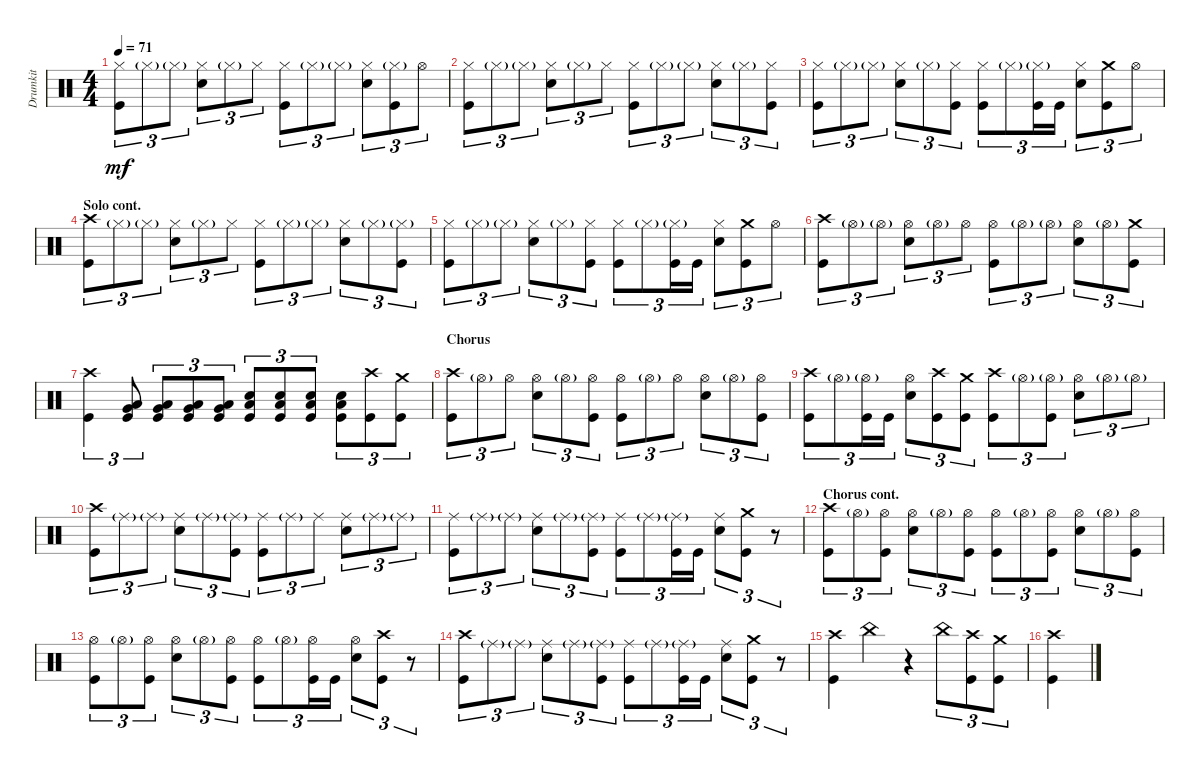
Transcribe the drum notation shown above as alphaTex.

\track ("Drumkit" "Drumkit") {instrument percussion}
\staff {score}
\articulation defaults
\ts (4 4)
\tempo 71
\clef neutral
\ks c
("Kick (hit)" "Hi-Hat (closed)").8{tu (3 2) dy mf} "Hi-Hat (closed)"{g}.8{tu (3 2)} "Hi-Hat (closed)"{g}.8{tu (3 2)} ("Hi-Hat (closed)" "Snare (hit) 2").8{tu (3 2)} "Hi-Hat (closed)"{g}.8{tu (3 2)} "Hi-Hat (closed)".8{tu (3 2)} ("Hi-Hat (closed)" "Kick (hit)").8{tu (3 2)} "Hi-Hat (closed)"{g}.8{tu (3 2)} "Hi-Hat (closed)"{g}.8{tu (3 2)} ("Hi-Hat (closed)" "Snare (hit) 2").8{tu (3 2)} ("Hi-Hat (closed)"{g} "Kick (hit)").8{tu (3 2)} "Hi-Hat (open)".8{tu (3 2)} |
("Hi-Hat (closed)" "Kick (hit)").8{tu (3 2)} "Hi-Hat (closed)"{g}.8{tu (3 2)} "Hi-Hat (closed)"{g}.8{tu (3 2)} ("Hi-Hat (closed)" "Snare (hit) 2").8{tu (3 2)} "Hi-Hat (closed)"{g}.8{tu (3 2)} "Hi-Hat (closed)".8{tu (3 2)} ("Hi-Hat (closed)" "Kick (hit)").8{tu (3 2)} "Hi-Hat (closed)"{g}.8{tu (3 2)} "Hi-Hat (closed)"{g}.8{tu (3 2)} ("Hi-Hat (closed)" "Snare (hit) 2").8{tu (3 2)} "Hi-Hat (closed)"{g}.8{tu (3 2)} ("Hi-Hat (closed)" "Kick (hit)").8{tu (3 2)} |
("Kick (hit)" "Hi-Hat (closed)").8{tu (3 2)} "Hi-Hat (closed)"{g}.8{tu (3 2)} "Hi-Hat (closed)"{g}.8{tu (3 2)} ("Hi-Hat (closed)" "Snare (hit) 2").8{tu (3 2)} "Hi-Hat (closed)"{g}.8{tu (3 2)} ("Hi-Hat (closed)" "Kick (hit)").8{tu (3 2)} ("Hi-Hat (closed)" "Kick (hit)").8{tu (3 2)} "Hi-Hat (closed)"{g}.8{tu (3 2)} ("Hi-Hat (closed)"{g} "Kick (hit)").16{tu (3 2)} "Kick (hit)".16{tu (3 2)} ("Hi-Hat (closed)" "Snare (hit) 2").8{tu (3 2)} ("Crash medium (hit)" "Kick (hit)").8{tu (3 2)} "Hi-Hat (open)".8{tu (3 2)} |
\section ("" "Solo cont.")
("Crash high (hit)" "Kick (hit)").8{tu (3 2)} "Hi-Hat (closed)"{g}.8{tu (3 2)} "Hi-Hat (closed)"{g}.8{tu (3 2)} ("Hi-Hat (closed)" "Snare (hit) 2").8{tu (3 2)} "Hi-Hat (closed)"{g}.8{tu (3 2)} "Hi-Hat (closed)".8{tu (3 2)} ("Hi-Hat (closed)" "Kick (hit)").8{tu (3 2)} "Hi-Hat (closed)"{g}.8{tu (3 2)} "Hi-Hat (closed)"{g}.8{tu (3 2)} ("Hi-Hat (closed)" "Snare (hit) 2").8{tu (3 2)} "Hi-Hat (closed)"{g}.8{tu (3 2)} ("Hi-Hat (closed)"{g} "Kick (hit)").8{tu (3 2)} |
("Kick (hit)" "Hi-Hat (closed)").8{tu (3 2)} "Hi-Hat (closed)"{g}.8{tu (3 2)} "Hi-Hat (closed)"{g}.8{tu (3 2)} ("Hi-Hat (closed)" "Snare (hit) 2").8{tu (3 2)} "Hi-Hat (closed)"{g}.8{tu (3 2)} ("Hi-Hat (closed)" "Kick (hit)").8{tu (3 2)} ("Hi-Hat (closed)" "Kick (hit)").8{tu (3 2)} "Hi-Hat (closed)"{g}.8{tu (3 2)} ("Hi-Hat (closed)"{g} "Kick (hit)").16{tu (3 2)} "Kick (hit)".16{tu (3 2)} ("Hi-Hat (closed)" "Snare (hit) 2").8{tu (3 2)} ("Crash medium (hit)" "Kick (hit)").8{tu (3 2)} "Hi-Hat (open)".8{tu (3 2)} |
("Kick (hit)" "Crash high (hit)").8{tu (3 2)} "Hi-Hat (open)"{g}.8{tu (3 2)} "Hi-Hat (open)"{g}.8{tu (3 2)} ("Hi-Hat (open)" "Snare (hit) 2").8{tu (3 2)} "Hi-Hat (open)"{g}.8{tu (3 2)} "Hi-Hat (open)".8{tu (3 2)} ("Hi-Hat (open)" "Kick (hit)").8{tu (3 2)} "Hi-Hat (open)"{g}.8{tu (3 2)} "Hi-Hat (open)"{g}.8{tu (3 2)} ("Hi-Hat (open)" "Snare (hit) 2").8{tu (3 2)} "Hi-Hat (open)"{g}.8{tu (3 2)} ("Kick (hit)" "Crash medium (hit)").8{tu (3 2)} |
("Crash high (hit)" "Kick (hit)").4{tu (3 2)} ("Low Floor Tom (hit)" "Kick (hit)" "Very Low Tom (hit)").8{tu (3 2)} ("Low Floor Tom (hit)" "Kick (hit)" "Very Low Tom (hit)").8{tu (3 2)} ("Low Floor Tom (hit)" "Kick (hit)" "Very Low Tom (hit)").8{tu (3 2)} ("Low Floor Tom (hit)" "Kick (hit)" "Very Low Tom (hit)").8{tu (3 2)} ("Snare (hit) 2" "Kick (hit)" "Low Floor Tom (hit)").8{tu (3 2)} ("Snare (hit) 2" "Kick (hit)" "Low Floor Tom (hit)").8{tu (3 2)} ("Snare (hit) 2" "Kick (hit)" "Low Floor Tom (hit)").8{tu (3 2)} ("Snare (hit) 2" "Kick (hit)" "Low Floor Tom (hit)").8{tu (3 2)} ("Kick (hit)" "Crash high (hit)").8{tu (3 2)} ("Kick (hit)" "Crash medium (hit)").8{tu (3 2)} |
\section ("" "Chorus")
("Kick (hit)" "Crash high (hit)").8{tu (3 2)} "Hi-Hat (open)"{g}.8{tu (3 2)} "Hi-Hat (open)".8{tu (3 2)} ("Snare (hit) 2" "Hi-Hat (open)").8{tu (3 2)} "Hi-Hat (open)"{g}.8{tu (3 2)} ("Kick (hit)" "Hi-Hat (open)").8{tu (3 2)} ("Kick (hit)" "Hi-Hat (open)").8{tu (3 2)} "Hi-Hat (open)"{g}.8{tu (3 2)} "Hi-Hat (open)".8{tu (3 2)} ("Snare (hit) 2" "Hi-Hat (open)").8{tu (3 2)} "Hi-Hat (open)"{g}.8{tu (3 2)} ("Kick (hit)" "Hi-Hat (open)").8{tu (3 2)} |
("Kick (hit)" "Crash high (hit)").8{tu (3 2)} "Hi-Hat (open)"{g}.8{tu (3 2)} ("Kick (hit)" "Hi-Hat (open)"{g}).16{tu (3 2)} "Kick (hit)".16{tu (3 2)} ("Snare (hit) 2" "Hi-Hat (open)").8{tu (3 2)} ("Kick (hit)" "Crash high (hit)").8{tu (3 2)} ("Kick (hit)" "Crash medium (hit)").8{tu (3 2)} ("Kick (hit)" "Crash high (hit)").8{tu (3 2)} "Hi-Hat (open)"{g}.8{tu (3 2)} ("Kick (hit)" "Hi-Hat (open)"{g}).8{tu (3 2)} ("Snare (hit) 2" "Hi-Hat (open)").8{tu (3 2)} "Hi-Hat (open)"{g}.8{tu (3 2)} "Hi-Hat (open)"{g}.8{tu (3 2)} |
("Crash high (hit)" "Kick (hit)").8{tu (3 2)} "Ride (middle)"{g}.8{tu (3 2)} "Ride (middle)"{g}.8{tu (3 2)} ("Ride (middle)" "Snare (hit) 2").8{tu (3 2)} "Ride (middle)"{g}.8{tu (3 2)} ("Ride (middle)"{g} "Kick (hit)").8{tu (3 2)} ("Ride (middle)" "Kick (hit)").8{tu (3 2)} "Ride (middle)"{g}.8{tu (3 2)} "Ride (middle)".8{tu (3 2)} ("Ride (middle)" "Snare (hit) 2").8{tu (3 2)} "Ride (middle)"{g}.8{tu (3 2)} "Ride (middle)"{g}.8{tu (3 2)} |
("Ride (middle)" "Kick (hit)").8{tu (3 2)} "Ride (middle)"{g}.8{tu (3 2)} "Ride (middle)"{g}.8{tu (3 2)} ("Ride (middle)" "Snare (hit) 2").8{tu (3 2)} "Ride (middle)"{g}.8{tu (3 2)} ("Ride (middle)"{g} "Kick (hit)").8{tu (3 2)} ("Ride (middle)" "Kick (hit)").8{tu (3 2)} "Ride (middle)"{g}.8{tu (3 2)} ("Ride (middle)"{g} "Kick (hit)").16{tu (3 2)} "Kick (hit)".16{tu (3 2)} ("Ride (middle)" "Snare (hit) 2").8{tu (3 2)} ("Crash medium (hit)" "Kick (hit)").8{tu (3 2)} r.8{tu (3 2)} |
\section ("" "Chorus cont.")
("Kick (hit)" "Crash high (hit)").8{tu (3 2)} "Hi-Hat (open)"{g}.8{tu (3 2)} ("Kick (hit)" "Hi-Hat (open)").8{tu (3 2)} ("Snare (hit) 2" "Hi-Hat (open)").8{tu (3 2)} "Hi-Hat (open)"{g}.8{tu (3 2)} ("Kick (hit)" "Hi-Hat (open)").8{tu (3 2)} ("Kick (hit)" "Hi-Hat (open)").8{tu (3 2)} "Hi-Hat (open)"{g}.8{tu (3 2)} ("Kick (hit)" "Hi-Hat (open)").8{tu (3 2)} ("Snare (hit) 2" "Hi-Hat (open)").8{tu (3 2)} "Hi-Hat (open)"{g}.8{tu (3 2)} ("Kick (hit)" "Hi-Hat (open)").8{tu (3 2)} |
("Kick (hit)" "Hi-Hat (open)").8{tu (3 2)} "Hi-Hat (open)"{g}.8{tu (3 2)} ("Kick (hit)" "Hi-Hat (open)").8{tu (3 2)} ("Snare (hit) 2" "Hi-Hat (open)").8{tu (3 2)} "Hi-Hat (open)"{g}.8{tu (3 2)} ("Kick (hit)" "Hi-Hat (open)").8{tu (3 2)} ("Kick (hit)" "Hi-Hat (open)").8{tu (3 2)} "Hi-Hat (open)"{g}.8{tu (3 2)} ("Kick (hit)" "Hi-Hat (open)").16{tu (3 2)} "Kick (hit)".16{tu (3 2)} ("Snare (hit) 2" "Hi-Hat (open)").8{tu (3 2)} ("Kick (hit)" "Crash high (hit)").8{tu (3 2)} r.8{tu (3 2)} |
("Kick (hit)" "Crash high (hit)").8{tu (3 2)} "Ride (middle)"{g}.8{tu (3 2)} "Ride (middle)"{g}.8{tu (3 2)} ("Ride (middle)" "Snare (hit) 2").8{tu (3 2)} "Ride (middle)"{g}.8{tu (3 2)} ("Ride (middle)"{g} "Kick (hit)").8{tu (3 2)} ("Ride (middle)" "Kick (hit)").8{tu (3 2)} "Ride (middle)"{g}.8{tu (3 2)} ("Ride (middle)"{g} "Kick (hit)").16{tu (3 2)} "Kick (hit)".16{tu (3 2)} ("Ride (middle)" "Snare (hit) 2").8{tu (3 2)} ("Crash medium (hit)" "Kick (hit)").8{tu (3 2)} r.8{tu (3 2)} |
("Kick (hit)" "Crash high (hit)").4 "China (hit)".4 r.4 "China (hit)".8{tu (3 2)} ("Kick (hit)" "Crash high (hit)").8{tu (3 2)} ("Kick (hit)" "Crash medium (hit)").8{tu (3 2)} |
("Kick (hit)" "Crash high (hit)").4
